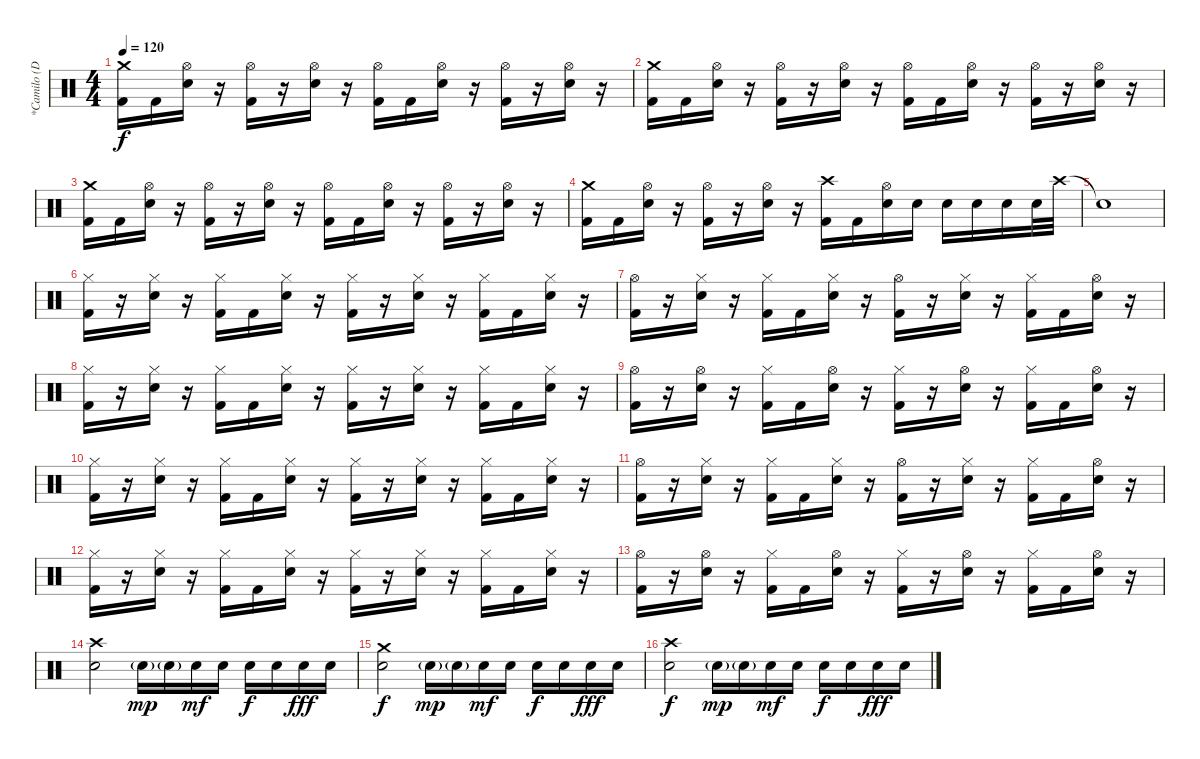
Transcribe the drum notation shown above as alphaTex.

\track ("*Camilo (Drums)" "*Camilo (D") {instrument percussion}
\staff {score}
\articulation defaults
\ts (4 4)
\tempo 120
\clef neutral
\ks c
("Crash medium (hit)" "Kick (hit) 2").16{dy f} "Kick (hit) 2".16 ("Hi-Hat (open)" "Electric Snare (hit)").16 r.16 ("Hi-Hat (open)" "Kick (hit) 2").16 r.16 ("Hi-Hat (open)" "Electric Snare (hit)").16 r.16 ("Hi-Hat (open)" "Kick (hit) 2").16 "Kick (hit) 2".16 ("Hi-Hat (open)" "Electric Snare (hit)").16 r.16 ("Hi-Hat (open)" "Kick (hit) 2").16 r.16 ("Hi-Hat (open)" "Electric Snare (hit)").16 r.16 |
("Crash medium (hit)" "Kick (hit) 2").16 "Kick (hit) 2".16 ("Hi-Hat (open)" "Electric Snare (hit)").16 r.16 ("Hi-Hat (open)" "Kick (hit) 2").16 r.16 ("Hi-Hat (open)" "Electric Snare (hit)").16 r.16 ("Hi-Hat (open)" "Kick (hit) 2").16 "Kick (hit) 2".16 ("Hi-Hat (open)" "Electric Snare (hit)").16 r.16 ("Hi-Hat (open)" "Kick (hit) 2").16 r.16 ("Hi-Hat (open)" "Electric Snare (hit)").16 r.16 |
("Crash medium (hit)" "Kick (hit) 2").16 "Kick (hit) 2".16 ("Hi-Hat (open)" "Electric Snare (hit)").16 r.16 ("Hi-Hat (open)" "Kick (hit) 2").16 r.16 ("Hi-Hat (open)" "Electric Snare (hit)").16 r.16 ("Hi-Hat (open)" "Kick (hit) 2").16 "Kick (hit) 2".16 ("Hi-Hat (open)" "Electric Snare (hit)").16 r.16 ("Hi-Hat (open)" "Kick (hit) 2").16 r.16 ("Hi-Hat (open)" "Electric Snare (hit)").16 r.16 |
("Crash medium (hit)" "Kick (hit) 2").16 "Kick (hit) 2".16 ("Hi-Hat (open)" "Electric Snare (hit)").16 r.16 ("Hi-Hat (open)" "Kick (hit) 2").16 r.16 ("Hi-Hat (open)" "Electric Snare (hit)").16 r.16 ("Crash high (hit)" "Kick (hit) 2").16 "Kick (hit) 2".16 ("Hi-Hat (open)" "Electric Snare (hit)").16 "Electric Snare (hit)".16 "Electric Snare (hit)".16 "Electric Snare (hit)".16 "Electric Snare (hit)".16 "Electric Snare (hit)".32 "Crash high (hit)".32 |
"Snare (hit)"{t}.1 |
("Hi-Hat (closed)" "Kick (hit) 2").16 r.16 ("Hi-Hat (closed)" "Electric Snare (hit)").16 r.16 ("Hi-Hat (closed)" "Kick (hit) 2").16 "Kick (hit) 2".16 ("Hi-Hat (closed)" "Electric Snare (hit)").16 r.16 ("Hi-Hat (closed)" "Kick (hit) 2").16 r.16 ("Hi-Hat (closed)" "Electric Snare (hit)").16 r.16 ("Hi-Hat (closed)" "Kick (hit) 2").16 "Kick (hit) 2".16 ("Hi-Hat (closed)" "Electric Snare (hit)").16 r.16 |
("Hi-Hat (open)" "Kick (hit) 2").16 r.16 ("Hi-Hat (closed)" "Electric Snare (hit)").16 r.16 ("Hi-Hat (closed)" "Kick (hit) 2").16 "Kick (hit) 2".16 ("Hi-Hat (closed)" "Electric Snare (hit)").16 r.16 ("Hi-Hat (open)" "Kick (hit) 2").16 r.16 ("Hi-Hat (closed)" "Electric Snare (hit)").16 r.16 ("Hi-Hat (closed)" "Kick (hit) 2").16 "Kick (hit) 2".16 ("Hi-Hat (open)" "Electric Snare (hit)").16 r.16 |
("Hi-Hat (closed)" "Kick (hit) 2").16 r.16 ("Hi-Hat (closed)" "Electric Snare (hit)").16 r.16 ("Hi-Hat (closed)" "Kick (hit) 2").16 "Kick (hit) 2".16 ("Hi-Hat (closed)" "Electric Snare (hit)").16 r.16 ("Hi-Hat (closed)" "Kick (hit) 2").16 r.16 ("Hi-Hat (closed)" "Electric Snare (hit)").16 r.16 ("Hi-Hat (closed)" "Kick (hit) 2").16 "Kick (hit) 2".16 ("Hi-Hat (closed)" "Electric Snare (hit)").16 r.16 |
("Hi-Hat (open)" "Kick (hit) 2").16 r.16 ("Hi-Hat (open)" "Electric Snare (hit)").16 r.16 ("Hi-Hat (closed)" "Kick (hit) 2").16 "Kick (hit) 2".16 ("Hi-Hat (open)" "Electric Snare (hit)").16 r.16 ("Hi-Hat (closed)" "Kick (hit) 2").16 r.16 ("Hi-Hat (open)" "Electric Snare (hit)").16 r.16 ("Hi-Hat (closed)" "Kick (hit) 2").16 "Kick (hit) 2".16 ("Hi-Hat (open)" "Electric Snare (hit)").16 r.16 |
("Hi-Hat (closed)" "Kick (hit) 2").16 r.16 ("Hi-Hat (closed)" "Electric Snare (hit)").16 r.16 ("Hi-Hat (closed)" "Kick (hit) 2").16 "Kick (hit) 2".16 ("Hi-Hat (closed)" "Electric Snare (hit)").16 r.16 ("Hi-Hat (closed)" "Kick (hit) 2").16 r.16 ("Hi-Hat (closed)" "Electric Snare (hit)").16 r.16 ("Hi-Hat (closed)" "Kick (hit) 2").16 "Kick (hit) 2".16 ("Hi-Hat (closed)" "Electric Snare (hit)").16 r.16 |
("Hi-Hat (open)" "Kick (hit) 2").16 r.16 ("Hi-Hat (closed)" "Electric Snare (hit)").16 r.16 ("Hi-Hat (closed)" "Kick (hit) 2").16 "Kick (hit) 2".16 ("Hi-Hat (closed)" "Electric Snare (hit)").16 r.16 ("Hi-Hat (open)" "Kick (hit) 2").16 r.16 ("Hi-Hat (closed)" "Electric Snare (hit)").16 r.16 ("Hi-Hat (closed)" "Kick (hit) 2").16 "Kick (hit) 2".16 ("Hi-Hat (open)" "Electric Snare (hit)").16 r.16 |
("Hi-Hat (closed)" "Kick (hit) 2").16 r.16 ("Hi-Hat (closed)" "Electric Snare (hit)").16 r.16 ("Hi-Hat (closed)" "Kick (hit) 2").16 "Kick (hit) 2".16 ("Hi-Hat (closed)" "Electric Snare (hit)").16 r.16 ("Hi-Hat (closed)" "Kick (hit) 2").16 r.16 ("Hi-Hat (closed)" "Electric Snare (hit)").16 r.16 ("Hi-Hat (closed)" "Kick (hit) 2").16 "Kick (hit) 2".16 ("Hi-Hat (closed)" "Electric Snare (hit)").16 r.16 |
("Hi-Hat (open)" "Kick (hit) 2").16 r.16 ("Hi-Hat (open)" "Electric Snare (hit)").16 r.16 ("Hi-Hat (closed)" "Kick (hit) 2").16 "Kick (hit) 2".16 ("Hi-Hat (open)" "Electric Snare (hit)").16 r.16 ("Hi-Hat (closed)" "Kick (hit) 2").16 r.16 ("Hi-Hat (open)" "Electric Snare (hit)").16 r.16 ("Hi-Hat (closed)" "Kick (hit) 2").16 "Kick (hit) 2".16 ("Hi-Hat (open)" "Electric Snare (hit)").16 r.16 |
("Crash high (hit)" "Electric Snare (hit)").2 "Electric Snare (hit)"{g}.16{dy mp} "Electric Snare (hit)"{g}.16 "Electric Snare (hit)".16{dy mf} "Electric Snare (hit)".16 "Electric Snare (hit)".16{dy f} "Electric Snare (hit)".16 "Electric Snare (hit)".16{dy fff} "Electric Snare (hit)".16 |
("Crash medium (hit)" "Electric Snare (hit)").2{dy f} "Electric Snare (hit)"{g}.16{dy mp} "Electric Snare (hit)"{g}.16 "Electric Snare (hit)".16{dy mf} "Electric Snare (hit)".16 "Electric Snare (hit)".16{dy f} "Electric Snare (hit)".16 "Electric Snare (hit)".16{dy fff} "Electric Snare (hit)".16 |
("Crash high (hit)" "Electric Snare (hit)").2{dy f} "Electric Snare (hit)"{g}.16{dy mp} "Electric Snare (hit)"{g}.16 "Electric Snare (hit)".16{dy mf} "Electric Snare (hit)".16 "Electric Snare (hit)".16{dy f} "Electric Snare (hit)".16 "Electric Snare (hit)".16{dy fff} "Electric Snare (hit)".16
